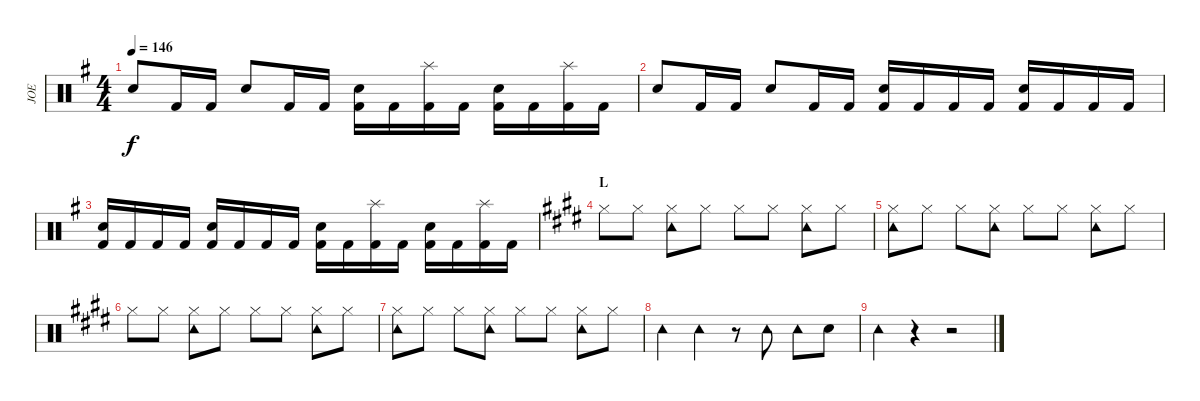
\track ("JOE" "JOE") {instrument percussion}
\staff {score}
\articulation defaults
\ts (4 4)
\tempo 146
\clef neutral
\ks eminor "Snare (hit) 2".8{dy f} "Kick (hit) 2".16 "Kick (hit) 2".16 "Snare (hit) 2".8 "Kick (hit) 2".16 "Kick (hit) 2".16
("Snare (hit) 2" "Kick (hit) 2").16 "Kick (hit) 2".16 ("Splash (hit)" "Kick (hit) 2").16 "Kick (hit) 2".16 ("Snare (hit) 2" "Kick (hit) 2").16 "Kick (hit) 2".16 ("Splash (hit)" "Kick (hit) 2").16 "Kick (hit) 2".16 |
"Snare (hit) 2".8 "Kick (hit) 2".16 "Kick (hit) 2".16 "Snare (hit) 2".8 "Kick (hit) 2".16 "Kick (hit) 2".16 ("Snare (hit) 2" "Kick (hit) 2").16 "Kick (hit) 2".16 "Kick (hit) 2".16 "Kick (hit) 2".16 ("Snare (hit) 2" "Kick (hit) 2").16 "Kick (hit) 2".16 "Kick (hit) 2".16 "Kick (hit) 2".16 |
("Snare (hit) 2" "Kick (hit) 2").16 "Kick (hit) 2".16 "Kick (hit) 2".16 "Kick (hit) 2".16 ("Snare (hit) 2" "Kick (hit) 2").16 "Kick (hit) 2".16 "Kick (hit) 2".16 "Kick (hit) 2".16 ("Snare (hit) 2" "Kick (hit) 2").16 "Kick (hit) 2".16 ("Splash (hit)" "Kick (hit) 2").16 "Kick (hit) 2".16 ("Snare (hit) 2" "Kick (hit) 2").16 "Kick (hit) 2".16 ("Splash (hit)" "Kick (hit) 2").16 "Kick (hit) 2".16 |
\section ("" "L")
\ks e "Hi-Hat (closed)".8{volume 7} "Hi-Hat (closed)".8
("Hi-Hat (closed)" "Tambourine (hit)").8 "Hi-Hat (closed)".8 "Hi-Hat (closed)".8 "Hi-Hat (closed)".8 ("Hi-Hat (closed)" "Tambourine (hit)").8 "Hi-Hat (closed)".8 |
("Hi-Hat (closed)" "Tambourine (hit)").8 "Hi-Hat (closed)".8 "Hi-Hat (closed)".8 ("Hi-Hat (closed)" "Tambourine (hit)").8 "Hi-Hat (closed)".8 "Hi-Hat (closed)".8 ("Hi-Hat (closed)" "Tambourine (hit)").8 "Hi-Hat (closed)".8 |
"Hi-Hat (closed)".8 "Hi-Hat (closed)".8 ("Hi-Hat (closed)" "Tambourine (hit)").8 "Hi-Hat (closed)".8 "Hi-Hat (closed)".8 "Hi-Hat (closed)".8 ("Hi-Hat (closed)" "Tambourine (hit)").8 "Hi-Hat (closed)".8 |
("Hi-Hat (closed)" "Tambourine (hit)").8 "Hi-Hat (closed)".8 "Hi-Hat (closed)".8 ("Hi-Hat (closed)" "Tambourine (hit)").8 "Hi-Hat (closed)".8 "Hi-Hat (closed)".8 ("Hi-Hat (closed)" "Tambourine (hit)").8 "Hi-Hat (closed)".8 |
"Tambourine (hit)".4 "Tambourine (hit)".4 r.8 "Tambourine (hit)".8 "Tambourine (hit)".8 "Hand Clap (hit)".8 |
"Tambourine (hit)".4 r.4 r.2
